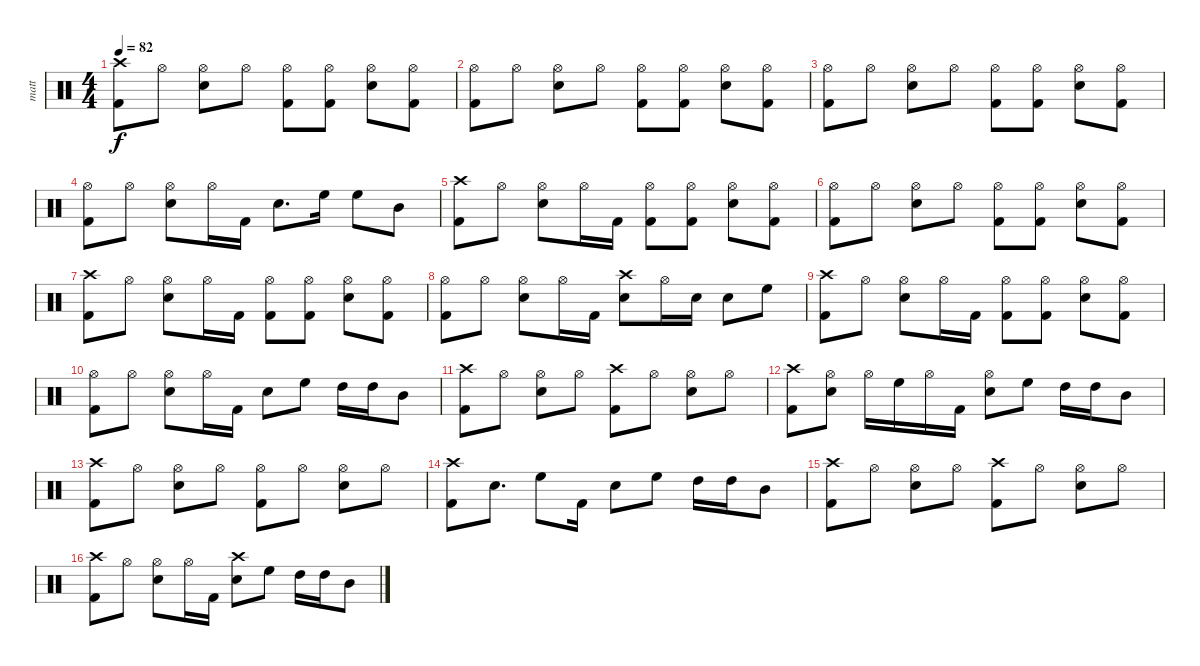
\track ("matt" "matt") {instrument percussion}
\staff {score}
\articulation defaults
\ts (4 4)
\tempo 82
\clef neutral
\ks c
("Crash high (hit)" "Kick (hit) 2").8{dy f} "Hi-Hat (open)".8 ("Hi-Hat (open)" "Electric Snare (hit)").8 "Hi-Hat (open)".8 ("Hi-Hat (open)" "Kick (hit) 2").8 ("Hi-Hat (open)" "Kick (hit) 2").8 ("Hi-Hat (open)" "Electric Snare (hit)").8 ("Hi-Hat (open)" "Kick (hit) 2").8 |
("Hi-Hat (open)" "Kick (hit) 2").8 "Hi-Hat (open)".8 ("Hi-Hat (open)" "Electric Snare (hit)").8 "Hi-Hat (open)".8 ("Hi-Hat (open)" "Kick (hit) 2").8 ("Hi-Hat (open)" "Kick (hit) 2").8 ("Hi-Hat (open)" "Electric Snare (hit)").8 ("Hi-Hat (open)" "Kick (hit) 2").8 |
("Hi-Hat (open)" "Kick (hit) 2").8 "Hi-Hat (open)".8 ("Hi-Hat (open)" "Electric Snare (hit)").8 "Hi-Hat (open)".8 ("Hi-Hat (open)" "Kick (hit) 2").8 ("Hi-Hat (open)" "Kick (hit) 2").8 ("Hi-Hat (open)" "Electric Snare (hit)").8 ("Hi-Hat (open)" "Kick (hit) 2").8 |
("Hi-Hat (open)" "Kick (hit) 2").8 "Hi-Hat (open)".8 ("Hi-Hat (open)" "Electric Snare (hit)").8 "Hi-Hat (open)".16 "Kick (hit) 2".16 "Electric Snare (hit)".8{d} "High Floor Tom (hit)".16 "High Floor Tom (hit)".8 "Mid Tom (hit)".8 |
("Crash high (hit)" "Kick (hit) 2").8 "Hi-Hat (open)".8 ("Hi-Hat (open)" "Electric Snare (hit)").8 "Hi-Hat (open)".16 "Kick (hit) 2".16 ("Hi-Hat (open)" "Kick (hit) 2").8 ("Hi-Hat (open)" "Kick (hit) 2").8 ("Hi-Hat (open)" "Electric Snare (hit)").8 ("Hi-Hat (open)" "Kick (hit) 2").8 |
("Hi-Hat (open)" "Kick (hit) 2").8 "Hi-Hat (open)".8 ("Hi-Hat (open)" "Electric Snare (hit)").8 "Hi-Hat (open)".8 ("Hi-Hat (open)" "Kick (hit) 2").8 ("Hi-Hat (open)" "Kick (hit) 2").8 ("Hi-Hat (open)" "Electric Snare (hit)").8 ("Hi-Hat (open)" "Kick (hit) 2").8 |
("Crash high (hit)" "Kick (hit) 2").8 "Hi-Hat (open)".8 ("Hi-Hat (open)" "Electric Snare (hit)").8 "Hi-Hat (open)".16 "Kick (hit) 2".16 ("Hi-Hat (open)" "Kick (hit) 2").8 ("Hi-Hat (open)" "Kick (hit) 2").8 ("Hi-Hat (open)" "Electric Snare (hit)").8 ("Hi-Hat (open)" "Kick (hit) 2").8 |
("Hi-Hat (open)" "Kick (hit) 2").8 "Hi-Hat (open)".8 ("Hi-Hat (open)" "Electric Snare (hit)").8 "Hi-Hat (open)".16 "Kick (hit) 2".16 ("Crash high (hit)" "Electric Snare (hit)").8 "Hi-Hat (open)".16 "Electric Snare (hit)".16 "Electric Snare (hit)".8 "High Floor Tom (hit)".8 |
("Crash high (hit)" "Kick (hit) 2").8 "Hi-Hat (open)".8 ("Hi-Hat (open)" "Electric Snare (hit)").8 "Hi-Hat (open)".16 "Kick (hit) 2".16 ("Hi-Hat (open)" "Kick (hit) 2").8 ("Hi-Hat (open)" "Kick (hit) 2").8 ("Hi-Hat (open)" "Electric Snare (hit)").8 ("Hi-Hat (open)" "Kick (hit) 2").8 |
("Hi-Hat (open)" "Kick (hit) 2").8 "Hi-Hat (open)".8 ("Hi-Hat (open)" "Electric Snare (hit)").8 "Hi-Hat (open)".16 "Kick (hit) 2".16 "Electric Snare (hit)".8 "High Floor Tom (hit)".8 "High Tom (hit)".16 "High Tom (hit)".16 "Mid Tom (hit)".8 |
("Crash high (hit)" "Kick (hit) 2").8 "Hi-Hat (open)".8 ("Hi-Hat (open)" "Electric Snare (hit)").8 "Hi-Hat (open)".8 ("Crash high (hit)" "Kick (hit) 2").8 "Hi-Hat (open)".8 ("Hi-Hat (open)" "Electric Snare (hit)").8 "Hi-Hat (open)".8 |
("Crash high (hit)" "Kick (hit) 2").8 ("Hi-Hat (open)" "Electric Snare (hit)").8 "Hi-Hat (open)".16 "High Floor Tom (hit)".16 "Hi-Hat (open)".16 "Kick (hit) 2".16 ("Hi-Hat (open)" "Electric Snare (hit)").8 "High Floor Tom (hit)".8 "High Tom (hit)".16 "High Tom (hit)".16 "Mid Tom (hit)".8 |
("Crash high (hit)" "Kick (hit) 2").8 "Hi-Hat (open)".8 ("Hi-Hat (open)" "Electric Snare (hit)").8 "Hi-Hat (open)".8 ("Hi-Hat (open)" "Kick (hit) 2").8 "Hi-Hat (open)".8 ("Hi-Hat (open)" "Electric Snare (hit)").8 "Hi-Hat (open)".8 |
("Crash high (hit)" "Kick (hit) 2").8 "Electric Snare (hit)".8{d} "High Floor Tom (hit)".8 "Kick (hit) 2".16 "Electric Snare (hit)".8 "High Floor Tom (hit)".8 "High Tom (hit)".16 "High Tom (hit)".16 "Mid Tom (hit)".8 |
("Crash high (hit)" "Kick (hit) 2").8 "Hi-Hat (open)".8 ("Hi-Hat (open)" "Electric Snare (hit)").8 "Hi-Hat (open)".8 ("Crash high (hit)" "Kick (hit) 2").8 "Hi-Hat (open)".8 ("Hi-Hat (open)" "Electric Snare (hit)").8 "Hi-Hat (open)".8 |
("Crash high (hit)" "Kick (hit) 2").8 "Hi-Hat (open)".8 ("Hi-Hat (open)" "Electric Snare (hit)").8 "Hi-Hat (open)".16 "Kick (hit) 2".16 ("Crash high (hit)" "Electric Snare (hit)").8 "High Floor Tom (hit)".8 "High Tom (hit)".16 "High Tom (hit)".16 "Mid Tom (hit)".8
